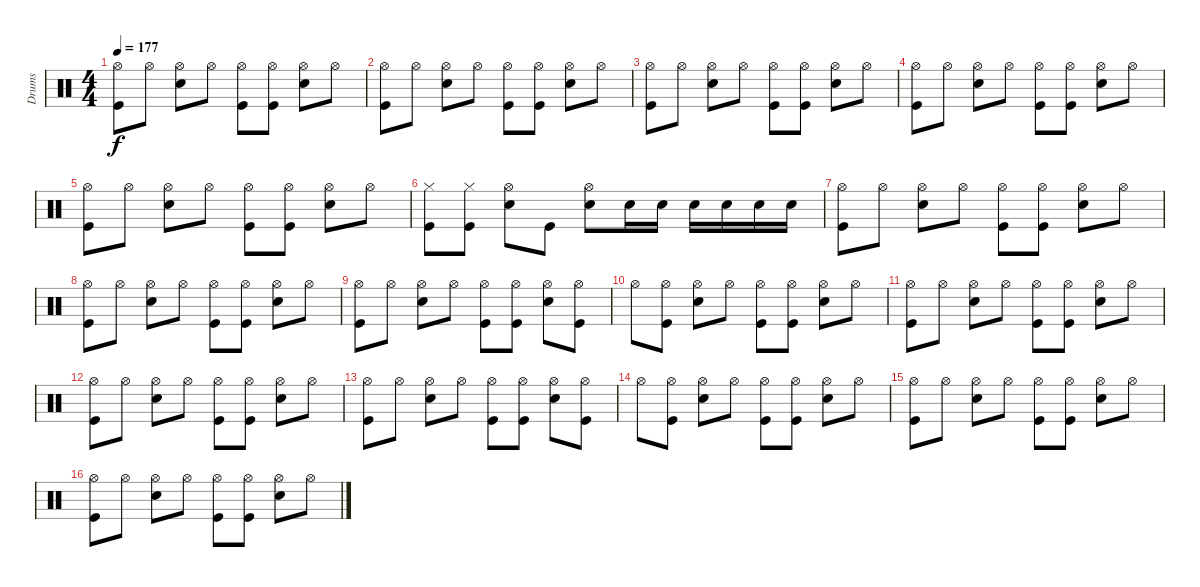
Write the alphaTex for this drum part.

\track ("Drums" "Drums") {instrument percussion}
\staff {score}
\articulation defaults
\ts (4 4)
\tempo 177
\clef neutral
\ks c
("Hi-Hat (open)" "Kick (hit)").8{dy f} "Hi-Hat (open)".8 ("Hi-Hat (open)" "Snare (hit) 2").8 "Hi-Hat (open)".8 ("Hi-Hat (open)" "Kick (hit)").8 ("Hi-Hat (open)" "Kick (hit)").8 ("Hi-Hat (open)" "Snare (hit) 2").8 "Hi-Hat (open)".8 |
("Hi-Hat (open)" "Kick (hit)").8 "Hi-Hat (open)".8 ("Hi-Hat (open)" "Snare (hit) 2").8 "Hi-Hat (open)".8 ("Hi-Hat (open)" "Kick (hit)").8 ("Hi-Hat (open)" "Kick (hit)").8 ("Hi-Hat (open)" "Snare (hit) 2").8 "Hi-Hat (open)".8 |
("Hi-Hat (open)" "Kick (hit)").8 "Hi-Hat (open)".8 ("Hi-Hat (open)" "Snare (hit) 2").8 "Hi-Hat (open)".8 ("Hi-Hat (open)" "Kick (hit)").8 ("Hi-Hat (open)" "Kick (hit)").8 ("Hi-Hat (open)" "Snare (hit) 2").8 "Hi-Hat (open)".8 |
("Hi-Hat (open)" "Kick (hit)").8 "Hi-Hat (open)".8 ("Hi-Hat (open)" "Snare (hit) 2").8 "Hi-Hat (open)".8 ("Hi-Hat (open)" "Kick (hit)").8 ("Hi-Hat (open)" "Kick (hit)").8 ("Hi-Hat (open)" "Snare (hit) 2").8 "Hi-Hat (open)".8 |
("Hi-Hat (open)" "Kick (hit)").8 "Hi-Hat (open)".8 ("Hi-Hat (open)" "Snare (hit) 2").8 "Hi-Hat (open)".8 ("Hi-Hat (open)" "Kick (hit)").8 ("Hi-Hat (open)" "Kick (hit)").8 ("Hi-Hat (open)" "Snare (hit) 2").8 "Hi-Hat (open)".8 |
("Hi-Hat (closed)" "Kick (hit)").8 ("Hi-Hat (closed)" "Kick (hit)").8 ("Hi-Hat (open)" "Snare (hit) 2").8 "Kick (hit)".8 ("Hi-Hat (open)" "Snare (hit) 2").8 "Snare (hit) 2".16 "Snare (hit) 2".16 "Snare (hit) 2".16 "Snare (hit) 2".16 "Snare (hit) 2".16 "Snare (hit) 2".16 |
("Hi-Hat (open)" "Kick (hit)").8 "Hi-Hat (open)".8 ("Hi-Hat (open)" "Snare (hit) 2").8 "Hi-Hat (open)".8 ("Hi-Hat (open)" "Kick (hit)").8 ("Hi-Hat (open)" "Kick (hit)").8 ("Hi-Hat (open)" "Snare (hit) 2").8 "Hi-Hat (open)".8 |
("Hi-Hat (open)" "Kick (hit)").8 "Hi-Hat (open)".8 ("Hi-Hat (open)" "Snare (hit) 2").8 "Hi-Hat (open)".8 ("Hi-Hat (open)" "Kick (hit)").8 ("Hi-Hat (open)" "Kick (hit)").8 ("Hi-Hat (open)" "Snare (hit) 2").8 "Hi-Hat (open)".8 |
("Hi-Hat (open)" "Kick (hit)").8 "Hi-Hat (open)".8 ("Hi-Hat (open)" "Snare (hit) 2").8 "Hi-Hat (open)".8 ("Hi-Hat (open)" "Kick (hit)").8 ("Hi-Hat (open)" "Kick (hit)").8 ("Hi-Hat (open)" "Snare (hit) 2").8 ("Hi-Hat (open)" "Kick (hit)").8 |
"Hi-Hat (open)".8 ("Hi-Hat (open)" "Kick (hit)").8 ("Hi-Hat (open)" "Snare (hit) 2").8 "Hi-Hat (open)".8 ("Hi-Hat (open)" "Kick (hit)").8 ("Hi-Hat (open)" "Kick (hit)").8 ("Hi-Hat (open)" "Snare (hit) 2").8 "Hi-Hat (open)".8 |
("Hi-Hat (open)" "Kick (hit)").8 "Hi-Hat (open)".8 ("Hi-Hat (open)" "Snare (hit) 2").8 "Hi-Hat (open)".8 ("Hi-Hat (open)" "Kick (hit)").8 ("Hi-Hat (open)" "Kick (hit)").8 ("Hi-Hat (open)" "Snare (hit) 2").8 "Hi-Hat (open)".8 |
("Hi-Hat (open)" "Kick (hit)").8 "Hi-Hat (open)".8 ("Hi-Hat (open)" "Snare (hit) 2").8 "Hi-Hat (open)".8 ("Hi-Hat (open)" "Kick (hit)").8 ("Hi-Hat (open)" "Kick (hit)").8 ("Hi-Hat (open)" "Snare (hit) 2").8 "Hi-Hat (open)".8 |
("Hi-Hat (open)" "Kick (hit)").8 "Hi-Hat (open)".8 ("Hi-Hat (open)" "Snare (hit) 2").8 "Hi-Hat (open)".8 ("Hi-Hat (open)" "Kick (hit)").8 ("Hi-Hat (open)" "Kick (hit)").8 ("Hi-Hat (open)" "Snare (hit) 2").8 ("Hi-Hat (open)" "Kick (hit)").8 |
"Hi-Hat (open)".8 ("Hi-Hat (open)" "Kick (hit)").8 ("Hi-Hat (open)" "Snare (hit) 2").8 "Hi-Hat (open)".8 ("Hi-Hat (open)" "Kick (hit)").8 ("Hi-Hat (open)" "Kick (hit)").8 ("Hi-Hat (open)" "Snare (hit) 2").8 "Hi-Hat (open)".8 |
("Hi-Hat (open)" "Kick (hit)").8 "Hi-Hat (open)".8 ("Hi-Hat (open)" "Snare (hit) 2").8 "Hi-Hat (open)".8 ("Hi-Hat (open)" "Kick (hit)").8 ("Hi-Hat (open)" "Kick (hit)").8 ("Hi-Hat (open)" "Snare (hit) 2").8 "Hi-Hat (open)".8 |
("Hi-Hat (open)" "Kick (hit)").8 "Hi-Hat (open)".8 ("Hi-Hat (open)" "Snare (hit) 2").8 "Hi-Hat (open)".8 ("Hi-Hat (open)" "Kick (hit)").8 ("Hi-Hat (open)" "Kick (hit)").8 ("Hi-Hat (open)" "Snare (hit) 2").8 "Hi-Hat (open)".8
